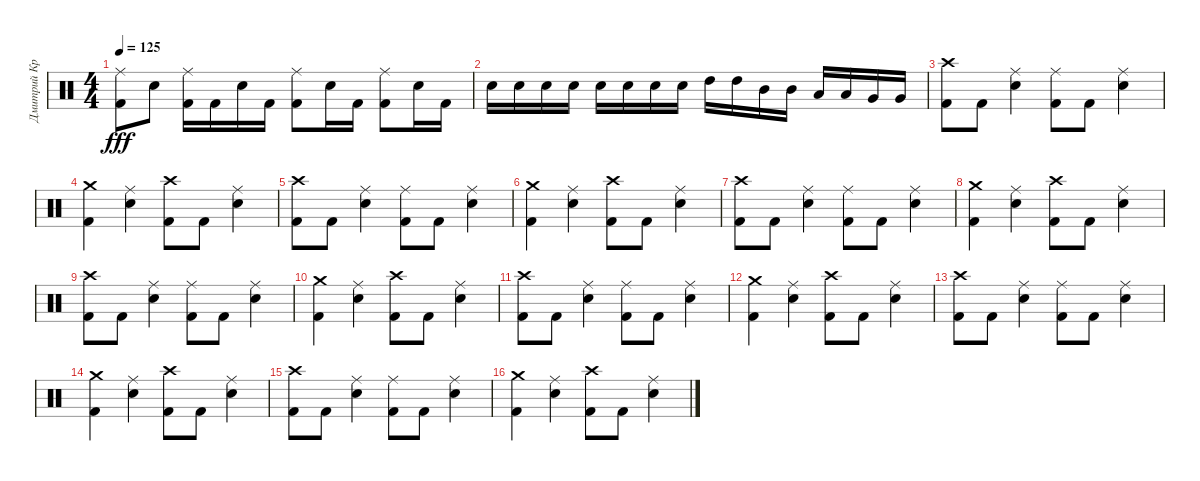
\track ("Дмитрий Кривенков" "Дмитрий Кр") {instrument percussion}
\staff {score}
\articulation defaults
\ts (4 4)
\tempo 125
\clef neutral
\ks c
("Ride (middle)" "Kick (hit) 2").8{dy fff} "Electric Snare (hit)".8 ("Ride (middle)" "Kick (hit) 2").16 "Kick (hit) 2".16 "Electric Snare (hit)".16 "Kick (hit) 2".16 ("Ride (middle)" "Kick (hit) 2").8 "Electric Snare (hit)".16 "Kick (hit) 2".16 ("Ride (middle)" "Kick (hit) 2").8 "Electric Snare (hit)".16 "Kick (hit) 2".16 |
"Electric Snare (hit)".16 "Electric Snare (hit)".16 "Electric Snare (hit)".16 "Electric Snare (hit)".16 "Electric Snare (hit)".16 "Electric Snare (hit)".16 "Electric Snare (hit)".16 "Electric Snare (hit)".16 "High Tom (hit)".16 "High Tom (hit)".16 "Mid Tom (hit)".16 "Mid Tom (hit)".16 "Low Tom (hit)".16 "Low Tom (hit)".16 "Very Low Tom (hit)".16 "Very Low Tom (hit)".16 |
("Crash high (hit)" "Kick (hit) 2").8 "Kick (hit) 2".8 ("Ride (middle)" "Electric Snare (hit)").4 ("Ride (middle)" "Kick (hit) 2").8 "Kick (hit) 2".8 ("Ride (middle)" "Electric Snare (hit)").4 |
("Crash medium (hit)" "Kick (hit) 2").4 ("Ride (middle)" "Electric Snare (hit)").4 ("Crash high (hit)" "Kick (hit) 2").8 "Kick (hit) 2".8 ("Ride (middle)" "Electric Snare (hit)").4 |
("Crash high (hit)" "Kick (hit) 2").8 "Kick (hit) 2".8 ("Ride (middle)" "Electric Snare (hit)").4 ("Ride (middle)" "Kick (hit) 2").8 "Kick (hit) 2".8 ("Ride (middle)" "Electric Snare (hit)").4 |
("Kick (hit) 2" "Crash medium (hit)").4 ("Electric Snare (hit)" "Ride (middle)").4 ("Kick (hit) 2" "Crash high (hit)").8 "Kick (hit) 2".8 ("Electric Snare (hit)" "Ride (middle)").4 |
("Crash high (hit)" "Kick (hit) 2").8 "Kick (hit) 2".8 ("Ride (middle)" "Electric Snare (hit)").4 ("Ride (middle)" "Kick (hit) 2").8 "Kick (hit) 2".8 ("Ride (middle)" "Electric Snare (hit)").4 |
("Crash medium (hit)" "Kick (hit) 2").4 ("Ride (middle)" "Electric Snare (hit)").4 ("Crash high (hit)" "Kick (hit) 2").8 "Kick (hit) 2".8 ("Ride (middle)" "Electric Snare (hit)").4 |
("Crash high (hit)" "Kick (hit) 2").8 "Kick (hit) 2".8 ("Ride (middle)" "Electric Snare (hit)").4 ("Ride (middle)" "Kick (hit) 2").8 "Kick (hit) 2".8 ("Ride (middle)" "Electric Snare (hit)").4 |
("Kick (hit) 2" "Crash medium (hit)").4 ("Electric Snare (hit)" "Ride (middle)").4 ("Kick (hit) 2" "Crash high (hit)").8 "Kick (hit) 2".8 ("Electric Snare (hit)" "Ride (middle)").4 |
("Crash high (hit)" "Kick (hit) 2").8 "Kick (hit) 2".8 ("Ride (middle)" "Electric Snare (hit)").4 ("Ride (middle)" "Kick (hit) 2").8 "Kick (hit) 2".8 ("Ride (middle)" "Electric Snare (hit)").4 |
("Crash medium (hit)" "Kick (hit) 2").4 ("Ride (middle)" "Electric Snare (hit)").4 ("Crash high (hit)" "Kick (hit) 2").8 "Kick (hit) 2".8 ("Ride (middle)" "Electric Snare (hit)").4 |
("Crash high (hit)" "Kick (hit) 2").8 "Kick (hit) 2".8 ("Ride (middle)" "Electric Snare (hit)").4 ("Ride (middle)" "Kick (hit) 2").8 "Kick (hit) 2".8 ("Ride (middle)" "Electric Snare (hit)").4 |
("Kick (hit) 2" "Crash medium (hit)").4 ("Electric Snare (hit)" "Ride (middle)").4 ("Kick (hit) 2" "Crash high (hit)").8 "Kick (hit) 2".8 ("Electric Snare (hit)" "Ride (middle)").4 |
("Crash high (hit)" "Kick (hit) 2").8 "Kick (hit) 2".8 ("Ride (middle)" "Electric Snare (hit)").4 ("Ride (middle)" "Kick (hit) 2").8 "Kick (hit) 2".8 ("Ride (middle)" "Electric Snare (hit)").4 |
("Crash medium (hit)" "Kick (hit) 2").4 ("Ride (middle)" "Electric Snare (hit)").4 ("Crash high (hit)" "Kick (hit) 2").8 "Kick (hit) 2".8 ("Ride (middle)" "Electric Snare (hit)").4
